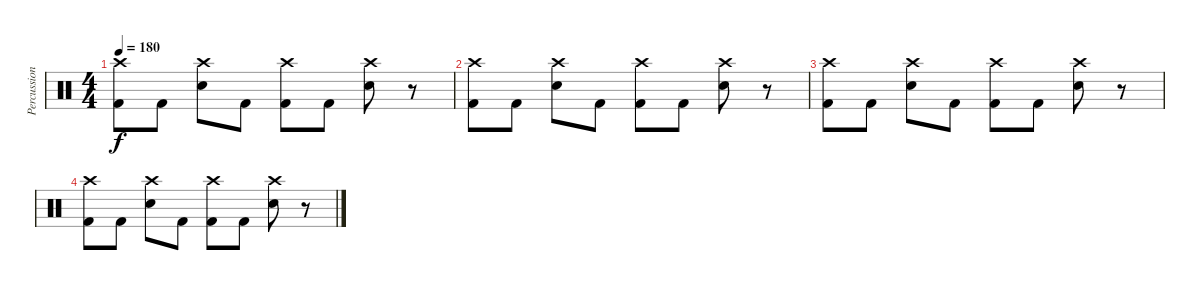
\track ("Percussion" "Percussion") {instrument percussion}
\staff {score}
\articulation defaults
\ts (4 4)
\tempo 180
\clef neutral
\ks c
("Crash high (hit)" "Kick (hit) 2").8{dy f} "Kick (hit) 2".8 ("Crash high (hit)" "Electric Snare (hit)").8 "Kick (hit) 2".8 ("Crash high (hit)" "Kick (hit) 2").8 "Kick (hit) 2".8 ("Crash high (hit)" "Electric Snare (hit)").8 r.8 |
("Crash high (hit)" "Kick (hit) 2").8 "Kick (hit) 2".8 ("Crash high (hit)" "Electric Snare (hit)").8 "Kick (hit) 2".8 ("Crash high (hit)" "Kick (hit) 2").8 "Kick (hit) 2".8 ("Crash high (hit)" "Electric Snare (hit)").8 r.8 |
("Crash high (hit)" "Kick (hit) 2").8 "Kick (hit) 2".8 ("Crash high (hit)" "Electric Snare (hit)").8 "Kick (hit) 2".8 ("Crash high (hit)" "Kick (hit) 2").8 "Kick (hit) 2".8 ("Crash high (hit)" "Electric Snare (hit)").8 r.8 |
("Crash high (hit)" "Kick (hit) 2").8 "Kick (hit) 2".8 ("Crash high (hit)" "Electric Snare (hit)").8 "Kick (hit) 2".8 ("Crash high (hit)" "Kick (hit) 2").8 "Kick (hit) 2".8 ("Crash high (hit)" "Electric Snare (hit)").8 r.8
